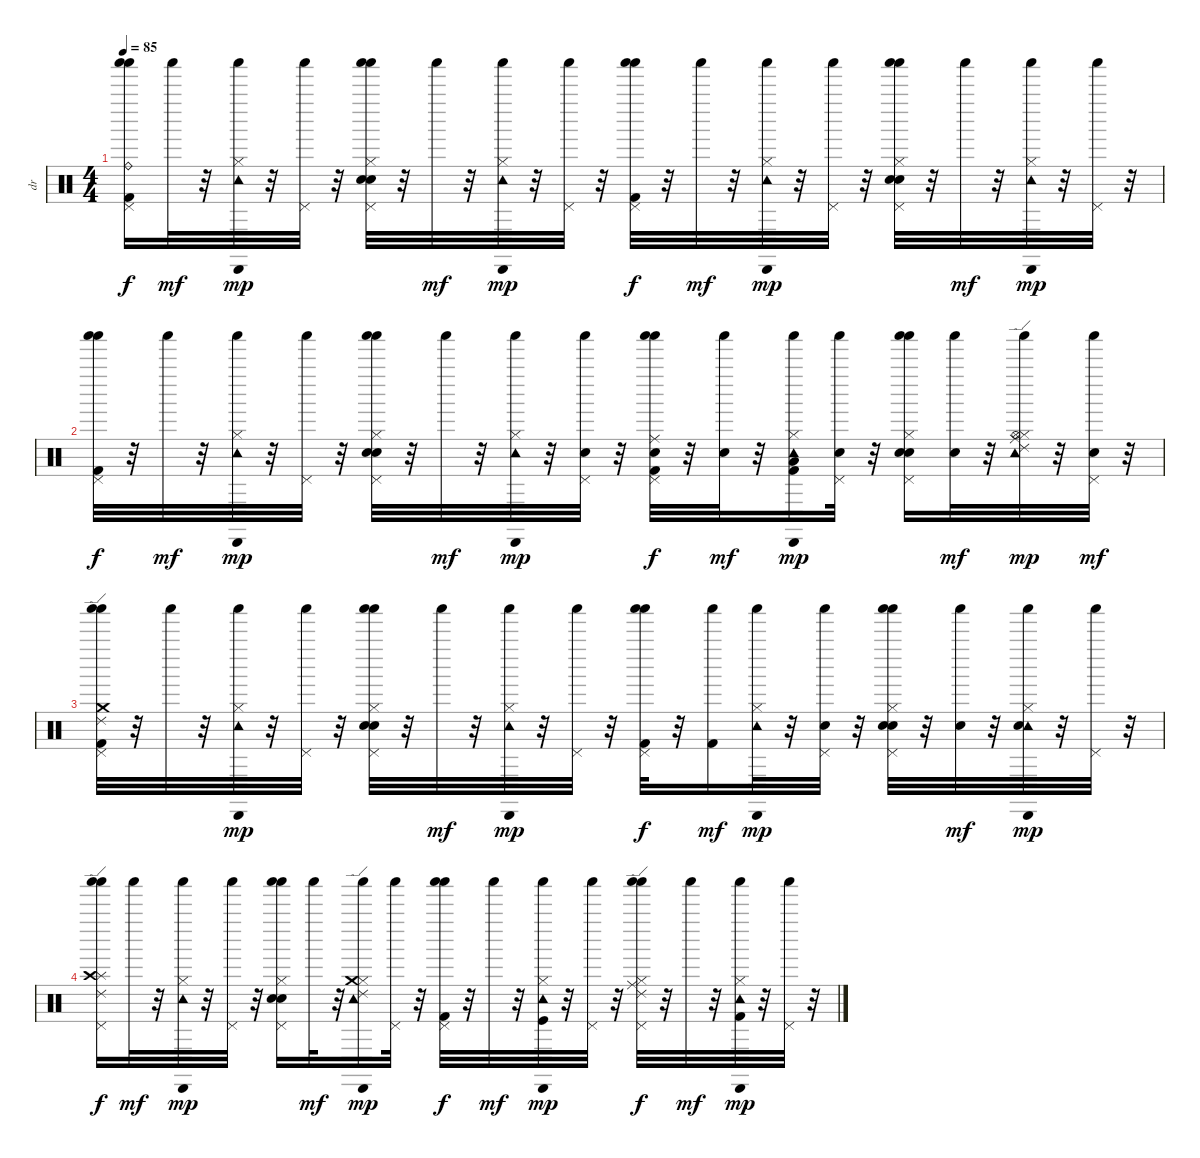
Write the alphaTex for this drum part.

\track ("dr" "dr") {instrument percussion}
\staff {score}
\articulation defaults
\ts (4 4)
\tempo 85
\clef neutral
\ks c
("Pedal Hi-Hat (hit)" "Shaker (hit)" "Shaker (hit)" "Kick (hit) 2" "Ride (bell)").16{dy f} "Shaker (hit)".32{dy mf} r.32 ("Hi-Hat (closed)" "Cabasa (hit)" "Tambourine (hit)" "Shaker (hit)").32{dy mp} r.32 ("Pedal Hi-Hat (hit)" "Shaker (hit)").32 r.32 ("Electric Snare (hit)" "Pedal Hi-Hat (hit)" "Shaker (hit)" "Shaker (hit)" "Hi-Hat (closed)" "Snare (hit) 2").32 r.32 "Shaker (hit)".32{dy mf} r.32 ("Hi-Hat (closed)" "Tambourine (hit)" "Cabasa (hit)" "Shaker (hit)").32{dy mp} r.32 ("Pedal Hi-Hat (hit)" "Shaker (hit)").32 r.32 ("Pedal Hi-Hat (hit)" "Shaker (hit)" "Shaker (hit)" "Kick (hit) 2").32{dy f} r.32 "Shaker (hit)".32{dy mf} r.32 ("Hi-Hat (closed)" "Cabasa (hit)" "Tambourine (hit)" "Shaker (hit)").32{dy mp} r.32 ("Pedal Hi-Hat (hit)" "Shaker (hit)").32 r.32 ("Electric Snare (hit)" "Pedal Hi-Hat (hit)" "Shaker (hit)" "Shaker (hit)" "Hi-Hat (closed)" "Snare (hit) 2").32 r.32 "Shaker (hit)".32{dy mf} r.32 ("Hi-Hat (closed)" "Cabasa (hit)" "Tambourine (hit)" "Shaker (hit)").32{dy mp} r.32 ("Pedal Hi-Hat (hit)" "Shaker (hit)").32 r.32 |
("Pedal Hi-Hat (hit)" "Shaker (hit)" "Shaker (hit)" "Kick (hit) 2").32{dy f} r.32 "Shaker (hit)".32{dy mf} r.32 ("Hi-Hat (closed)" "Cabasa (hit)" "Tambourine (hit)" "Shaker (hit)").32{dy mp} r.32 ("Pedal Hi-Hat (hit)" "Shaker (hit)").32 r.32 ("Electric Snare (hit)" "Pedal Hi-Hat (hit)" "Shaker (hit)" "Shaker (hit)" "Hi-Hat (closed)" "Snare (hit) 2").32 r.32 "Shaker (hit)".32{dy mf} r.32 ("Hi-Hat (closed)" "Cabasa (hit)" "Tambourine (hit)" "Shaker (hit)").32{dy mp} r.32 ("Pedal Hi-Hat (hit)" "Shaker (hit)" "Snare (hit) 2").32 r.32 ("Pedal Hi-Hat (hit)" "Shaker (hit)" "Shaker (hit)" "Kick (hit) 2" "Snare (hit) 2" "Ride (middle)").32{dy f} r.32 ("Shaker (hit)" "Snare (hit) 2").32{dy mf} r.32 ("Cabasa (hit)" "Tambourine (hit)" "Shaker (hit)" "Hi-Hat (closed)" "Low Tom (hit)" "Kick (hit) 2").16{dy mp} ("Pedal Hi-Hat (hit)" "Shaker (hit)" "Snare (hit) 2").32 r.32 ("Electric Snare (hit)" "Pedal Hi-Hat (hit)" "Shaker (hit)" "Shaker (hit)" "Hi-Hat (closed)" "Snare (hit) 2").16 ("Shaker (hit)" "Snare (hit) 2").32{dy mf} r.32 ("Hi-Hat (closed)" "Tambourine (hit)" "Shaker (hit)" "Ride (middle)" "Hi-Hat (open)" "Ride (edge) 2").32{dy mp} r.32 ("Pedal Hi-Hat (hit)" "Shaker (hit)" "Snare (hit) 2").32{dy mf} r.32 |
("Kick (hit) 2" "Shaker (hit)" "Shaker (hit)" "Crash medium (hit)" "Ride (edge) 2" "Pedal Hi-Hat (hit)").32 r.32 "Shaker (hit)".32 r.32 ("Hi-Hat (closed)" "Cabasa (hit)" "Tambourine (hit)" "Shaker (hit)").32{dy mp} r.32 ("Pedal Hi-Hat (hit)" "Shaker (hit)").32 r.32 ("Electric Snare (hit)" "Pedal Hi-Hat (hit)" "Shaker (hit)" "Shaker (hit)" "Hi-Hat (closed)" "Snare (hit) 2").32 r.32 "Shaker (hit)".32{dy mf} r.32 ("Hi-Hat (closed)" "Cabasa (hit)" "Tambourine (hit)" "Shaker (hit)").32{dy mp} r.32 ("Pedal Hi-Hat (hit)" "Shaker (hit)").32 r.32 ("Pedal Hi-Hat (hit)" "Shaker (hit)" "Shaker (hit)" "Kick (hit) 2").32{dy f} r.32 ("Shaker (hit)" "Kick (hit) 2").16{dy mf} ("Cabasa (hit)" "Tambourine (hit)" "Shaker (hit)" "Hi-Hat (closed)").32{dy mp} r.32 ("Pedal Hi-Hat (hit)" "Shaker (hit)" "Snare (hit) 2").32 r.32 ("Shaker (hit)" "Shaker (hit)" "Pedal Hi-Hat (hit)" "Hi-Hat (closed)" "Electric Snare (hit)" "Snare (hit) 2").32 r.32 ("Shaker (hit)" "Snare (hit) 2").32{dy mf} r.32 ("Hi-Hat (closed)" "Cabasa (hit)" "Tambourine (hit)" "Shaker (hit)" "Snare (hit) 2").32{dy mp} r.32 ("Pedal Hi-Hat (hit)" "Shaker (hit)").32 r.32 |
("Pedal Hi-Hat (hit)" "Shaker (hit)" "Shaker (hit)" "Ride (edge) 2" "Splash (hit)" "Crash high (hit)").16{dy f} "Shaker (hit)".32{dy mf} r.32 ("Hi-Hat (closed)" "Cabasa (hit)" "Tambourine (hit)" "Shaker (hit)").32{dy mp} r.32 ("Pedal Hi-Hat (hit)" "Shaker (hit)").32 r.32 ("Electric Snare (hit)" "Pedal Hi-Hat (hit)" "Shaker (hit)" "Shaker (hit)" "Hi-Hat (closed)" "Snare (hit) 2").16 "Shaker (hit)".32{dy mf} r.32 ("Hi-Hat (closed)" "Cabasa (hit)" "Tambourine (hit)" "Shaker (hit)" "Crash medium (hit)" "Ride (edge) 2").16{dy mp} ("Pedal Hi-Hat (hit)" "Shaker (hit)").32 r.32 ("Pedal Hi-Hat (hit)" "Shaker (hit)" "Shaker (hit)" "Kick (hit) 2").32{dy f} r.32 "Shaker (hit)".32{dy mf} r.32 ("Hi-Hat (closed)" "Cabasa (hit)" "Tambourine (hit)" "Shaker (hit)" "Kick (hit)").32{dy mp} r.32 ("Pedal Hi-Hat (hit)" "Shaker (hit)").32 r.32 ("Pedal Hi-Hat (hit)" "Shaker (hit)" "Shaker (hit)" "Hi-Hat (closed)" "Ride (middle)" "Ride (edge) 2").32{dy f} r.32 "Shaker (hit)".32{dy mf} r.32 ("Cabasa (hit)" "Tambourine (hit)" "Shaker (hit)" "Hi-Hat (closed)" "Kick (hit) 2").32{dy mp} r.32 ("Pedal Hi-Hat (hit)" "Shaker (hit)").32 r.32
